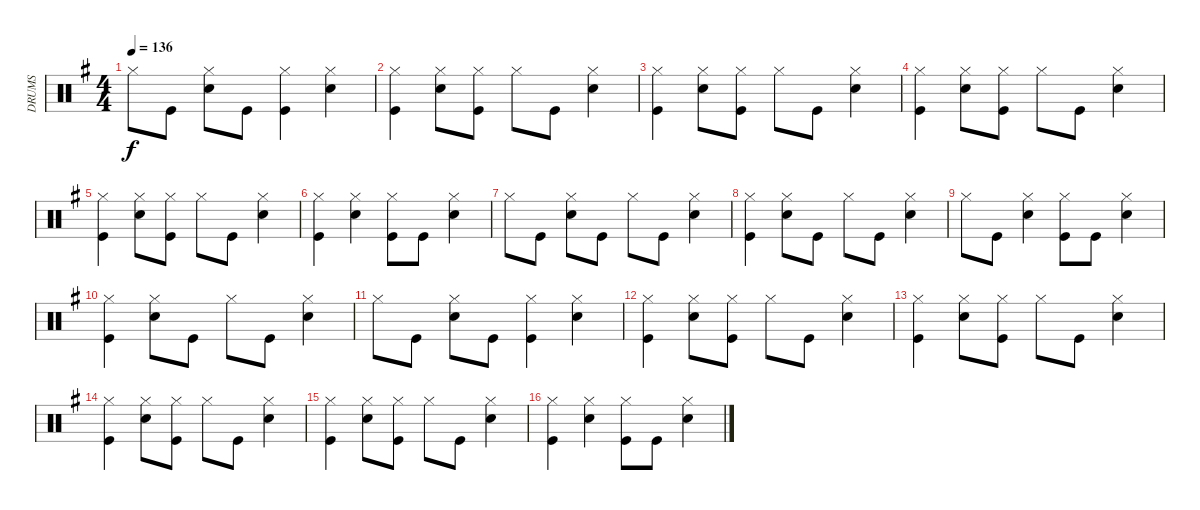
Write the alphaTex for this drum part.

\track ("DRUMS" "DRUMS") {instrument percussion}
\staff {score}
\articulation defaults
\ts (4 4)
\tempo 136
\clef neutral
\ks eminor "Hi-Hat (closed)".8{dy f} "Kick (hit)".8
("Hi-Hat (closed)" "Snare (hit) 2").8 "Kick (hit)".8 ("Hi-Hat (closed)" "Kick (hit)").4 ("Hi-Hat (closed)" "Snare (hit) 2").4 |
("Hi-Hat (closed)" "Kick (hit)").4 ("Hi-Hat (closed)" "Snare (hit) 2").8 ("Hi-Hat (closed)" "Kick (hit)").8 "Hi-Hat (closed)".8 "Kick (hit)".8 ("Hi-Hat (closed)" "Snare (hit) 2").4 |
("Hi-Hat (closed)" "Kick (hit)").4 ("Hi-Hat (closed)" "Snare (hit) 2").8 ("Hi-Hat (closed)" "Kick (hit)").8 "Hi-Hat (closed)".8 "Kick (hit)".8 ("Hi-Hat (closed)" "Snare (hit) 2").4 |
("Hi-Hat (closed)" "Kick (hit)").4 ("Hi-Hat (closed)" "Snare (hit) 2").8 ("Hi-Hat (closed)" "Kick (hit)").8 "Hi-Hat (closed)".8 "Kick (hit)".8 ("Hi-Hat (closed)" "Snare (hit) 2").4 |
("Hi-Hat (closed)" "Kick (hit)").4 ("Hi-Hat (closed)" "Snare (hit) 2").8 ("Hi-Hat (closed)" "Kick (hit)").8 "Hi-Hat (closed)".8 "Kick (hit)".8 ("Hi-Hat (closed)" "Snare (hit) 2").4 |
("Hi-Hat (closed)" "Kick (hit)").4 ("Hi-Hat (closed)" "Snare (hit) 2").4 ("Hi-Hat (closed)" "Kick (hit)").8 "Kick (hit)".8 ("Hi-Hat (closed)" "Snare (hit) 2").4 |
"Hi-Hat (closed)".8 "Kick (hit)".8 ("Hi-Hat (closed)" "Snare (hit) 2").8 "Kick (hit)".8 "Hi-Hat (closed)".8 "Kick (hit)".8 ("Hi-Hat (closed)" "Snare (hit) 2").4 |
("Hi-Hat (closed)" "Kick (hit)").4 ("Hi-Hat (closed)" "Snare (hit) 2").8 "Kick (hit)".8 "Hi-Hat (closed)".8 "Kick (hit)".8 ("Hi-Hat (closed)" "Snare (hit) 2").4 |
"Hi-Hat (closed)".8 "Kick (hit)".8 ("Hi-Hat (closed)" "Snare (hit) 2").4 ("Hi-Hat (closed)" "Kick (hit)").8 "Kick (hit)".8 ("Hi-Hat (closed)" "Snare (hit) 2").4 |
("Hi-Hat (closed)" "Kick (hit)").4 ("Hi-Hat (closed)" "Snare (hit) 2").8 "Kick (hit)".8 "Hi-Hat (closed)".8 "Kick (hit)".8 ("Hi-Hat (closed)" "Snare (hit) 2").4 |
"Hi-Hat (closed)".8 "Kick (hit)".8 ("Hi-Hat (closed)" "Snare (hit) 2").8 "Kick (hit)".8 ("Hi-Hat (closed)" "Kick (hit)").4 ("Hi-Hat (closed)" "Snare (hit) 2").4 |
("Hi-Hat (closed)" "Kick (hit)").4 ("Hi-Hat (closed)" "Snare (hit) 2").8 ("Hi-Hat (closed)" "Kick (hit)").8 "Hi-Hat (closed)".8 "Kick (hit)".8 ("Hi-Hat (closed)" "Snare (hit) 2").4 |
("Hi-Hat (closed)" "Kick (hit)").4 ("Hi-Hat (closed)" "Snare (hit) 2").8 ("Hi-Hat (closed)" "Kick (hit)").8 "Hi-Hat (closed)".8 "Kick (hit)".8 ("Hi-Hat (closed)" "Snare (hit) 2").4 |
("Hi-Hat (closed)" "Kick (hit)").4 ("Hi-Hat (closed)" "Snare (hit) 2").8 ("Hi-Hat (closed)" "Kick (hit)").8 "Hi-Hat (closed)".8 "Kick (hit)".8 ("Hi-Hat (closed)" "Snare (hit) 2").4 |
("Hi-Hat (closed)" "Kick (hit)").4 ("Hi-Hat (closed)" "Snare (hit) 2").8 ("Hi-Hat (closed)" "Kick (hit)").8 "Hi-Hat (closed)".8 "Kick (hit)".8 ("Hi-Hat (closed)" "Snare (hit) 2").4 |
("Hi-Hat (closed)" "Kick (hit)").4 ("Hi-Hat (closed)" "Snare (hit) 2").4 ("Hi-Hat (closed)" "Kick (hit)").8 "Kick (hit)".8 ("Hi-Hat (closed)" "Snare (hit) 2").4
